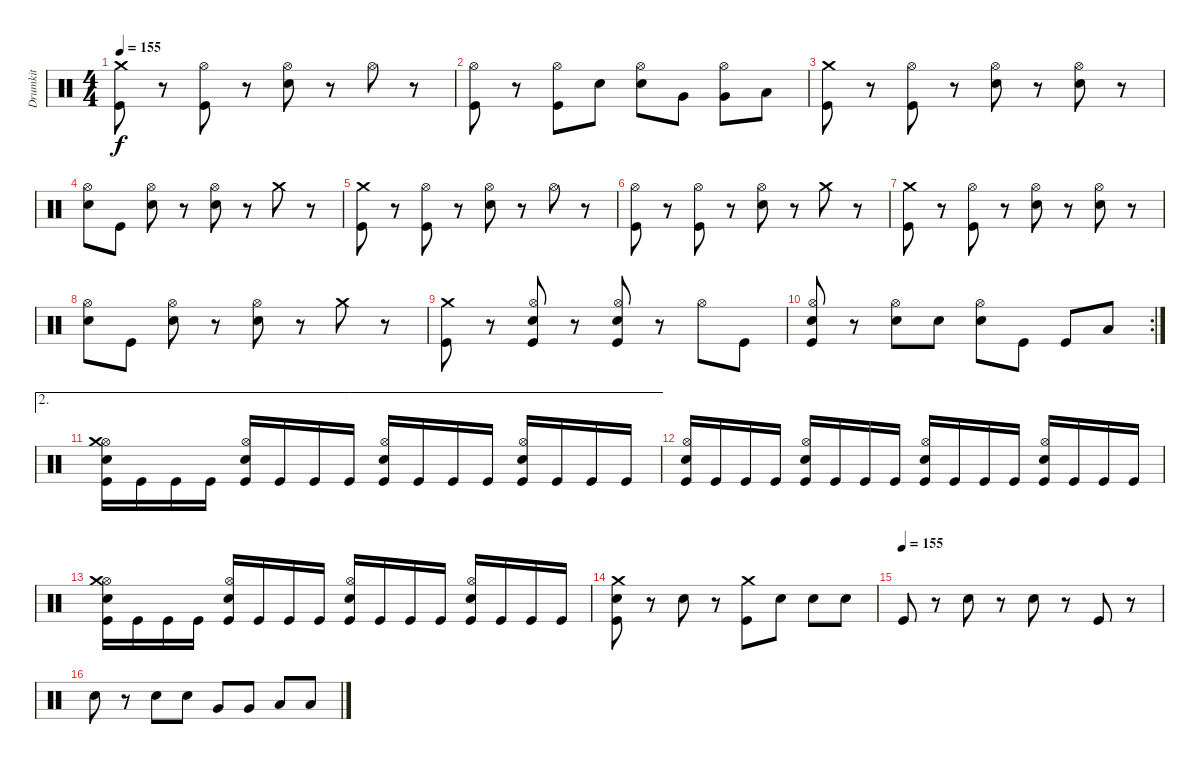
\track ("Drumkit" "Drumkit") {instrument percussion}
\staff {score}
\articulation defaults
\ts (4 4)
\tempo 155
\clef neutral
\ks c
("Crash medium (hit)" "Kick (hit)").8{dy f} r.8 ("Hi-Hat (open)" "Kick (hit)").8 r.8 ("Hi-Hat (open)" "Snare (hit) 2").8 r.8 "Hi-Hat (open)".8 r.8 |
("Hi-Hat (open)" "Kick (hit)").8 r.8 ("Hi-Hat (open)" "Kick (hit)").8 "Snare (hit) 2".8 ("Hi-Hat (open)" "Snare (hit) 2").8 "Very Low Tom (hit)".8 ("Hi-Hat (open)" "Very Low Tom (hit)").8 "Low Floor Tom (hit)".8 |
("Crash medium (hit)" "Kick (hit)").8 r.8 ("Hi-Hat (open)" "Kick (hit)").8 r.8 ("Hi-Hat (open)" "Snare (hit) 2").8 r.8 ("Hi-Hat (open)" "Snare (hit) 2").8 r.8 |
("Hi-Hat (open)" "Snare (hit) 2").8 "Kick (hit)".8 ("Hi-Hat (open)" "Snare (hit) 2").8 r.8 ("Hi-Hat (open)" "Snare (hit) 2").8 r.8 "Crash medium (hit)".8 r.8 |
("Crash medium (hit)" "Kick (hit)").8 r.8 ("Hi-Hat (open)" "Kick (hit)").8 r.8 ("Hi-Hat (open)" "Snare (hit) 2").8 r.8 "Hi-Hat (open)".8 r.8 |
("Hi-Hat (open)" "Kick (hit)").8 r.8 ("Hi-Hat (open)" "Kick (hit)").8 r.8 ("Hi-Hat (open)" "Snare (hit) 2").8 r.8 "Crash medium (hit)".8 r.8 |
("Crash medium (hit)" "Kick (hit)").8 r.8 ("Hi-Hat (open)" "Kick (hit)").8 r.8 ("Hi-Hat (open)" "Snare (hit) 2").8 r.8 ("Hi-Hat (open)" "Snare (hit) 2").8 r.8 |
("Hi-Hat (open)" "Snare (hit) 2").8 "Kick (hit)".8 ("Hi-Hat (open)" "Snare (hit) 2").8 r.8 ("Hi-Hat (open)" "Snare (hit) 2").8 r.8 "Crash medium (hit)".8 r.8 |
("Crash medium (hit)" "Kick (hit)").8 r.8 ("Hi-Hat (open)" "Snare (hit) 2" "Kick (hit)").8 r.8 ("Hi-Hat (open)" "Snare (hit) 2" "Kick (hit)").8 r.8 "Hi-Hat (open)".8 "Kick (hit)".8 |
\rc 2
("Hi-Hat (open)" "Snare (hit) 2" "Kick (hit)").8 r.8 ("Hi-Hat (open)" "Snare (hit) 2").8 "Snare (hit) 2".8 ("Hi-Hat (open)" "Snare (hit) 2").8 "Kick (hit)".8 "Kick (hit)".8 "Low Floor Tom (hit)".8 |
\ae 2
("Hi-Hat (open)" "Crash medium (hit)" "Snare (hit) 2" "Kick (hit)").16 "Kick (hit)".16 "Kick (hit)".16 "Kick (hit)".16 ("Hi-Hat (open)" "Snare (hit) 2" "Kick (hit)").16 "Kick (hit)".16 "Kick (hit)".16 "Kick (hit)".16 ("Hi-Hat (open)" "Snare (hit) 2" "Kick (hit)").16 "Kick (hit)".16 "Kick (hit)".16 "Kick (hit)".16 ("Hi-Hat (open)" "Snare (hit) 2" "Kick (hit)").16 "Kick (hit)".16 "Kick (hit)".16 "Kick (hit)".16 |
("Hi-Hat (open)" "Snare (hit) 2" "Kick (hit)").16 "Kick (hit)".16 "Kick (hit)".16 "Kick (hit)".16 ("Hi-Hat (open)" "Snare (hit) 2" "Kick (hit)").16 "Kick (hit)".16 "Kick (hit)".16 "Kick (hit)".16 ("Hi-Hat (open)" "Snare (hit) 2" "Kick (hit)").16 "Kick (hit)".16 "Kick (hit)".16 "Kick (hit)".16 ("Hi-Hat (open)" "Snare (hit) 2" "Kick (hit)").16 "Kick (hit)".16 "Kick (hit)".16 "Kick (hit)".16 |
("Hi-Hat (open)" "Crash medium (hit)" "Snare (hit) 2" "Kick (hit)").16 "Kick (hit)".16 "Kick (hit)".16 "Kick (hit)".16 ("Hi-Hat (open)" "Snare (hit) 2" "Kick (hit)").16 "Kick (hit)".16 "Kick (hit)".16 "Kick (hit)".16 ("Hi-Hat (open)" "Snare (hit) 2" "Kick (hit)").16 "Kick (hit)".16 "Kick (hit)".16 "Kick (hit)".16 ("Hi-Hat (open)" "Snare (hit) 2" "Kick (hit)").16 "Kick (hit)".16 "Kick (hit)".16 "Kick (hit)".16 |
("Crash medium (hit)" "Snare (hit) 2" "Kick (hit)").8 r.8 "Snare (hit) 2".8 r.8 ("Crash medium (hit)" "Kick (hit)").8 "Snare (hit) 2".8 "Snare (hit) 2".8 "Snare (hit) 2".8 |
\tempo (155)
"Kick (hit)".8 r.8 "Snare (hit) 2".8 r.8 "Snare (hit) 2".8 r.8 "Kick (hit)".8 r.8 |
"Snare (hit) 2".8 r.8 "Snare (hit) 2".8 "Snare (hit) 2".8 "Very Low Tom (hit)".8 "Very Low Tom (hit)".8 "Low Floor Tom (hit)".8 "Low Floor Tom (hit)".8
